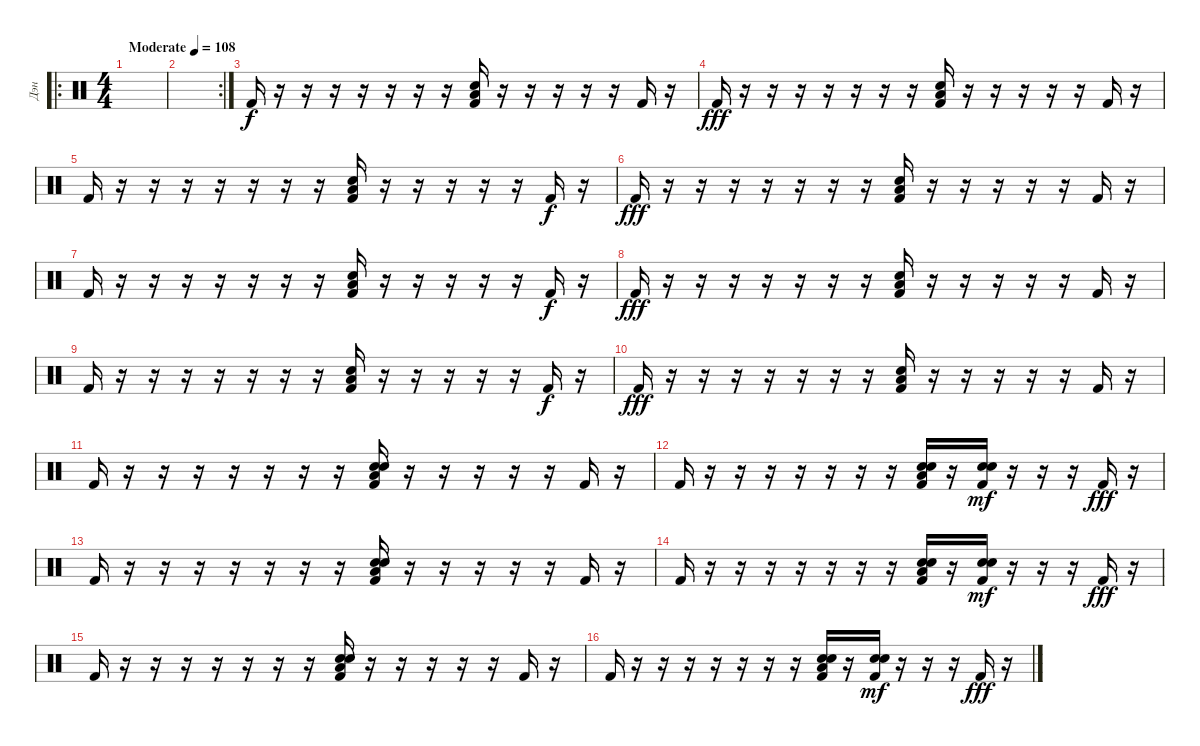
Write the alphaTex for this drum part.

\track ("Дэн" "Дэн") {instrument percussion}
\staff {score}
\articulation defaults
\ro
\ts (4 4)
\tempo (108 "Moderate")
\clef neutral
\ks c
|
\rc 2
|
"Kick (hit) 2".16 r.16 r.16 r.16 r.16 r.16 r.16 r.16 ("Snare (hit) 2" "Low Floor Tom (hit)" "Kick (hit) 2").16 r.16 r.16 r.16 r.16 r.16 "Kick (hit) 2".16{dy f} r.16 |
"Kick (hit) 2".16{dy fff} r.16 r.16 r.16 r.16 r.16 r.16 r.16 ("Snare (hit) 2" "Low Floor Tom (hit)" "Kick (hit) 2").16 r.16 r.16 r.16 r.16 r.16 "Kick (hit) 2".16 r.16 |
"Kick (hit) 2".16 r.16 r.16 r.16 r.16 r.16 r.16 r.16 ("Snare (hit) 2" "Low Floor Tom (hit)" "Kick (hit) 2").16 r.16 r.16 r.16 r.16 r.16 "Kick (hit) 2".16{dy f} r.16 |
"Kick (hit) 2".16{dy fff} r.16 r.16 r.16 r.16 r.16 r.16 r.16 ("Snare (hit) 2" "Low Floor Tom (hit)" "Kick (hit) 2").16 r.16 r.16 r.16 r.16 r.16 "Kick (hit) 2".16 r.16 |
"Kick (hit) 2".16 r.16 r.16 r.16 r.16 r.16 r.16 r.16 ("Snare (hit) 2" "Low Floor Tom (hit)" "Kick (hit) 2").16 r.16 r.16 r.16 r.16 r.16 "Kick (hit) 2".16{dy f} r.16 |
"Kick (hit) 2".16{dy fff} r.16 r.16 r.16 r.16 r.16 r.16 r.16 ("Snare (hit) 2" "Low Floor Tom (hit)" "Kick (hit) 2").16 r.16 r.16 r.16 r.16 r.16 "Kick (hit) 2".16 r.16 |
"Kick (hit) 2".16 r.16 r.16 r.16 r.16 r.16 r.16 r.16 ("Snare (hit) 2" "Low Floor Tom (hit)" "Kick (hit) 2").16 r.16 r.16 r.16 r.16 r.16 "Kick (hit) 2".16{dy f} r.16 |
"Kick (hit) 2".16{dy fff} r.16 r.16 r.16 r.16 r.16 r.16 r.16 ("Snare (hit) 2" "Low Floor Tom (hit)" "Kick (hit) 2").16 r.16 r.16 r.16 r.16 r.16 "Kick (hit) 2".16 r.16 |
"Kick (hit) 2".16{volume 5} r.16 r.16 r.16 r.16 r.16 r.16 r.16 ("Snare (hit) 2" "Low Floor Tom (hit)" "Electric Snare (hit)" "Kick (hit) 2").16 r.16 r.16 r.16 r.16 r.16 "Kick (hit) 2".16 r.16 |
"Kick (hit) 2".16 r.16 r.16 r.16 r.16 r.16 r.16 r.16 ("Snare (hit) 2" "Low Floor Tom (hit)" "Electric Snare (hit)" "Kick (hit) 2").16 r.16 ("Snare (hit) 2" "Electric Snare (hit)" "Kick (hit) 2").16{dy mf} r.16 r.16 r.16 "Kick (hit) 2".16{dy fff} r.16 |
"Kick (hit) 2".16 r.16 r.16 r.16 r.16 r.16 r.16 r.16 ("Snare (hit) 2" "Low Floor Tom (hit)" "Electric Snare (hit)" "Kick (hit) 2").16 r.16 r.16 r.16 r.16 r.16 "Kick (hit) 2".16 r.16 |
"Kick (hit) 2".16 r.16 r.16 r.16 r.16 r.16 r.16 r.16 ("Snare (hit) 2" "Low Floor Tom (hit)" "Electric Snare (hit)" "Kick (hit) 2").16 r.16 ("Snare (hit) 2" "Electric Snare (hit)" "Kick (hit) 2").16{dy mf} r.16 r.16 r.16 "Kick (hit) 2".16{dy fff} r.16 |
"Kick (hit) 2".16 r.16 r.16 r.16 r.16 r.16 r.16 r.16 ("Snare (hit) 2" "Low Floor Tom (hit)" "Electric Snare (hit)" "Kick (hit) 2").16 r.16 r.16 r.16 r.16 r.16 "Kick (hit) 2".16 r.16 |
"Kick (hit) 2".16 r.16 r.16 r.16 r.16 r.16 r.16 r.16 ("Snare (hit) 2" "Low Floor Tom (hit)" "Electric Snare (hit)" "Kick (hit) 2").16 r.16 ("Snare (hit) 2" "Electric Snare (hit)" "Kick (hit) 2").16{dy mf} r.16 r.16 r.16 "Kick (hit) 2".16{dy fff} r.16
